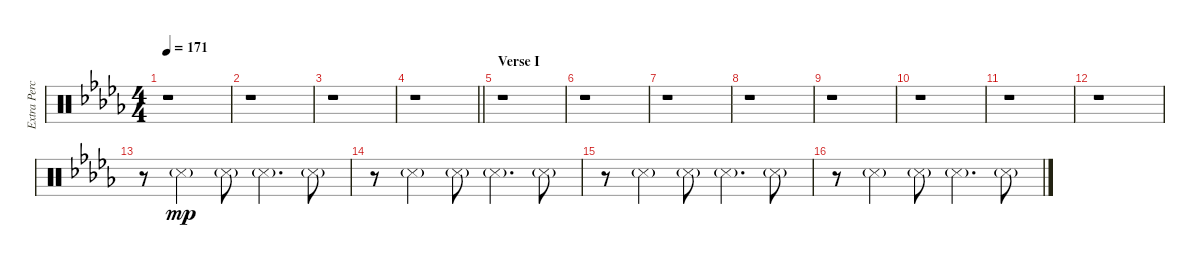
\track ("Extra Percussion" "Extra Perc") {instrument percussion}
\staff {score}
\articulation defaults
\ts (4 4)
\tempo 171
\clef neutral
\ks db
r.1{dy mp} |
r.1 |
r.1 |
\barLineRight lightlight
r.1 |
\section ("" "Verse I")
r.1 |
r.1 |
r.1 |
r.1 |
r.1 |
r.1 |
r.1 |
r.1 |
r.8 "Metronome (hit)"{g}.4 "Metronome (hit)"{g}.8 "Metronome (hit)"{g}.4{d} "Metronome (hit)"{g}.8 |
r.8 "Metronome (hit)"{g}.4 "Metronome (hit)"{g}.8 "Metronome (hit)"{g}.4{d} "Metronome (hit)"{g}.8 |
r.8 "Metronome (hit)"{g}.4 "Metronome (hit)"{g}.8 "Metronome (hit)"{g}.4{d} "Metronome (hit)"{g}.8 |
r.8 "Metronome (hit)"{g}.4 "Metronome (hit)"{g}.8 "Metronome (hit)"{g}.4{d} "Metronome (hit)"{g}.8
